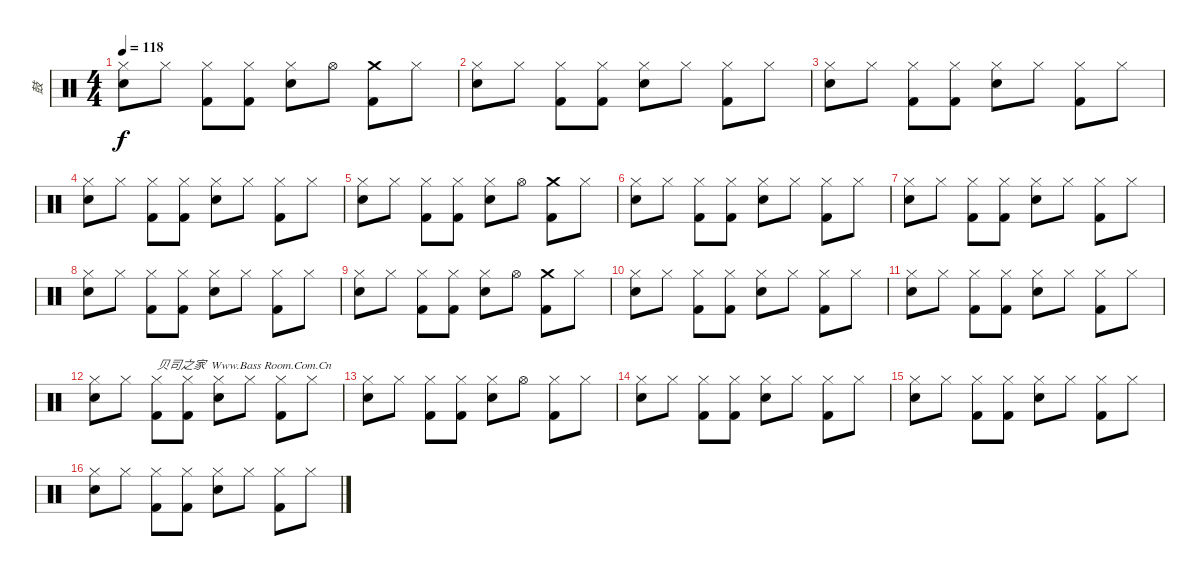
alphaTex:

\track ("鼓" "鼓") {instrument percussion}
\staff {score}
\articulation defaults
\ts (4 4)
\tempo 118
\clef neutral
\ks c
("Hi-Hat (closed)" "Electric Snare (hit)").8{dy f} "Hi-Hat (closed)".8 ("Hi-Hat (closed)" "Kick (hit) 2").8 ("Hi-Hat (closed)" "Kick (hit) 2").8 ("Hi-Hat (closed)" "Electric Snare (hit)").8 "Hi-Hat (open)".8 ("Crash medium (hit)" "Kick (hit) 2").8 "Hi-Hat (closed)".8 |
("Hi-Hat (closed)" "Electric Snare (hit)").8 "Hi-Hat (closed)".8 ("Hi-Hat (closed)" "Kick (hit) 2").8 ("Hi-Hat (closed)" "Kick (hit) 2").8 ("Hi-Hat (closed)" "Electric Snare (hit)").8 "Hi-Hat (closed)".8 ("Hi-Hat (closed)" "Kick (hit) 2").8 "Hi-Hat (closed)".8 |
("Hi-Hat (closed)" "Electric Snare (hit)").8 "Hi-Hat (closed)".8 ("Hi-Hat (closed)" "Kick (hit) 2").8 ("Hi-Hat (closed)" "Kick (hit) 2").8 ("Hi-Hat (closed)" "Electric Snare (hit)").8 "Hi-Hat (closed)".8 ("Hi-Hat (closed)" "Kick (hit) 2").8 "Hi-Hat (closed)".8 |
("Hi-Hat (closed)" "Electric Snare (hit)").8 "Hi-Hat (closed)".8 ("Hi-Hat (closed)" "Kick (hit) 2").8 ("Hi-Hat (closed)" "Kick (hit) 2").8 ("Hi-Hat (closed)" "Electric Snare (hit)").8 "Hi-Hat (closed)".8 ("Hi-Hat (closed)" "Kick (hit) 2").8 "Hi-Hat (closed)".8 |
("Hi-Hat (closed)" "Electric Snare (hit)").8 "Hi-Hat (closed)".8 ("Hi-Hat (closed)" "Kick (hit) 2").8 ("Hi-Hat (closed)" "Kick (hit) 2").8 ("Hi-Hat (closed)" "Electric Snare (hit)").8 "Hi-Hat (open)".8 ("Crash medium (hit)" "Kick (hit) 2").8 "Hi-Hat (closed)".8 |
("Hi-Hat (closed)" "Electric Snare (hit)").8 "Hi-Hat (closed)".8 ("Hi-Hat (closed)" "Kick (hit) 2").8 ("Hi-Hat (closed)" "Kick (hit) 2").8 ("Hi-Hat (closed)" "Electric Snare (hit)").8 "Hi-Hat (closed)".8 ("Hi-Hat (closed)" "Kick (hit) 2").8 "Hi-Hat (closed)".8 |
("Hi-Hat (closed)" "Electric Snare (hit)").8 "Hi-Hat (closed)".8 ("Hi-Hat (closed)" "Kick (hit) 2").8 ("Hi-Hat (closed)" "Kick (hit) 2").8 ("Hi-Hat (closed)" "Electric Snare (hit)").8 "Hi-Hat (closed)".8 ("Hi-Hat (closed)" "Kick (hit) 2").8 "Hi-Hat (closed)".8 |
("Hi-Hat (closed)" "Electric Snare (hit)").8 "Hi-Hat (closed)".8 ("Hi-Hat (closed)" "Kick (hit) 2").8 ("Hi-Hat (closed)" "Kick (hit) 2").8 ("Hi-Hat (closed)" "Electric Snare (hit)").8 "Hi-Hat (closed)".8 ("Hi-Hat (closed)" "Kick (hit) 2").8 "Hi-Hat (closed)".8 |
("Hi-Hat (closed)" "Electric Snare (hit)").8 "Hi-Hat (closed)".8 ("Hi-Hat (closed)" "Kick (hit) 2").8 ("Hi-Hat (closed)" "Kick (hit) 2").8 ("Hi-Hat (closed)" "Electric Snare (hit)").8 "Hi-Hat (open)".8 ("Crash medium (hit)" "Kick (hit) 2").8 "Hi-Hat (closed)".8 |
("Hi-Hat (closed)" "Electric Snare (hit)").8 "Hi-Hat (closed)".8 ("Hi-Hat (closed)" "Kick (hit) 2").8 ("Hi-Hat (closed)" "Kick (hit) 2").8 ("Hi-Hat (closed)" "Electric Snare (hit)").8 "Hi-Hat (closed)".8 ("Hi-Hat (closed)" "Kick (hit) 2").8 "Hi-Hat (closed)".8 |
("Hi-Hat (closed)" "Electric Snare (hit)").8 "Hi-Hat (closed)".8 ("Hi-Hat (closed)" "Kick (hit) 2").8 ("Hi-Hat (closed)" "Kick (hit) 2").8 ("Hi-Hat (closed)" "Electric Snare (hit)").8 "Hi-Hat (closed)".8 ("Hi-Hat (closed)" "Kick (hit) 2").8 "Hi-Hat (closed)".8 |
("Hi-Hat (closed)" "Electric Snare (hit)").8 "Hi-Hat (closed)".8 ("Hi-Hat (closed)" "Kick (hit) 2").8{txt "贝司之家  Www.Bass Room.Com.Cn "} ("Hi-Hat (closed)" "Kick (hit) 2").8 ("Hi-Hat (closed)" "Electric Snare (hit)").8 "Hi-Hat (closed)".8 ("Hi-Hat (closed)" "Kick (hit) 2").8 "Hi-Hat (closed)".8 |
("Hi-Hat (closed)" "Electric Snare (hit)").8 "Hi-Hat (closed)".8 ("Hi-Hat (closed)" "Kick (hit) 2").8 ("Hi-Hat (closed)" "Kick (hit) 2").8 ("Hi-Hat (closed)" "Electric Snare (hit)").8 "Hi-Hat (open)".8 ("Hi-Hat (closed)" "Kick (hit) 2").8 "Hi-Hat (closed)".8 |
("Hi-Hat (closed)" "Electric Snare (hit)").8 "Hi-Hat (closed)".8 ("Hi-Hat (closed)" "Kick (hit) 2").8 ("Hi-Hat (closed)" "Kick (hit) 2").8 ("Hi-Hat (closed)" "Electric Snare (hit)").8 "Hi-Hat (closed)".8 ("Hi-Hat (closed)" "Kick (hit) 2").8 "Hi-Hat (closed)".8 |
("Hi-Hat (closed)" "Electric Snare (hit)").8 "Hi-Hat (closed)".8 ("Hi-Hat (closed)" "Kick (hit) 2").8 ("Hi-Hat (closed)" "Kick (hit) 2").8 ("Hi-Hat (closed)" "Electric Snare (hit)").8 "Hi-Hat (closed)".8 ("Hi-Hat (closed)" "Kick (hit) 2").8 "Hi-Hat (closed)".8 |
("Hi-Hat (closed)" "Electric Snare (hit)").8 "Hi-Hat (closed)".8 ("Hi-Hat (closed)" "Kick (hit) 2").8 ("Hi-Hat (closed)" "Kick (hit) 2").8 ("Hi-Hat (closed)" "Electric Snare (hit)").8 "Hi-Hat (closed)".8 ("Hi-Hat (closed)" "Kick (hit) 2").8 "Hi-Hat (closed)".8
